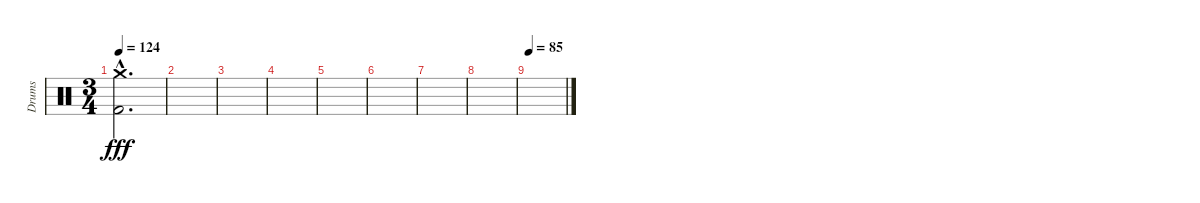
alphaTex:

\track ("Drums" "Drums") {instrument percussion}
\staff {score}
\articulation defaults
\ts (3 4)
\tempo 124
\clef neutral
\ks c
("Crash medium (hit)"{hac} "Kick (hit) 2"{hac}).2{d dy fff} |
|
|
|
|
|
|
|
\tempo 85
